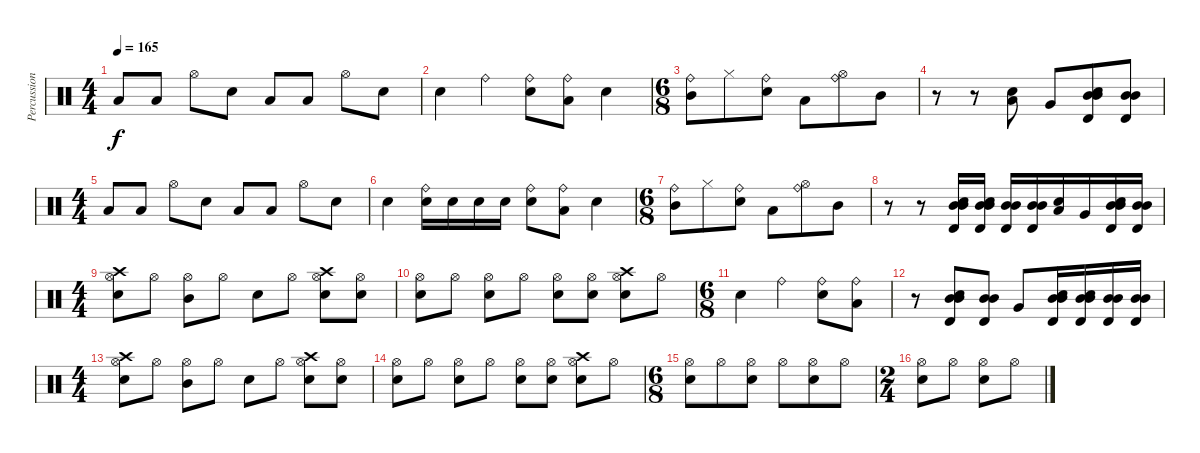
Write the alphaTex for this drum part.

\track ("Percussion" "Percussion") {instrument percussion}
\staff {score}
\articulation defaults
\ts (4 4)
\tempo 165
\clef neutral
\ks c "Low Tom (hit)".8{dy f} "Low Tom (hit)".8 "Hi-Hat (open)".8 "Electric Snare (hit)".8 "Low Tom (hit)".8 "Low Tom (hit)".8 "Hi-Hat (open)".8 "Electric Snare (hit)".8
|
"Electric Snare (hit)".4 "Ride (bell)".4 ("Ride (bell)" "Electric Snare (hit)").8 ("Low Tom (hit)" "Ride (bell)").8 "Electric Snare (hit)".4 |
\ts (6 8)
("Mid Tom (hit)" "Ride (bell)").8 "Hi-Hat (closed)".8 ("Electric Snare (hit)" "Ride (bell)").8 "Low Tom (hit)".8 ("Hi-Hat (open)" "Ride (bell)").8 "Mid Tom (hit)".8 |
r.8 r.8 ("Low Tom (hit)" "Electric Snare (hit)").8 "Very Low Tom (hit)".8 ("Timbale high (hit)" "Mid Tom (hit)" "Mid Tom (hit)" "Electric Snare (hit)").8 ("Timbale high (hit)" "Mid Tom (hit)" "Mid Tom (hit)").8 |
\ts (4 4)
"Low Tom (hit)".8 "Low Tom (hit)".8 "Hi-Hat (open)".8 "Electric Snare (hit)".8 "Low Tom (hit)".8 "Low Tom (hit)".8 "Hi-Hat (open)".8 "Electric Snare (hit)".8 |
"Electric Snare (hit)".4 ("Ride (bell)" "Electric Snare (hit)").16 "Electric Snare (hit)".16 "Electric Snare (hit)".16 "Electric Snare (hit)".16 ("Ride (bell)" "Electric Snare (hit)").8 ("Low Tom (hit)" "Ride (bell)").8 "Electric Snare (hit)".4 |
\ts (6 8)
("Mid Tom (hit)" "Ride (bell)").8 "Hi-Hat (closed)".8 ("Electric Snare (hit)" "Ride (bell)").8 "Low Tom (hit)".8 ("Hi-Hat (open)" "Ride (bell)").8 "Mid Tom (hit)".8 |
r.8 r.8 ("Timbale high (hit)" "Mid Tom (hit)" "Mid Tom (hit)" "Electric Snare (hit)").16 ("Timbale high (hit)" "Mid Tom (hit)" "Mid Tom (hit)" "Electric Snare (hit)").16 ("Timbale high (hit)" "Mid Tom (hit)" "Mid Tom (hit)").16 ("Timbale high (hit)" "Mid Tom (hit)" "Mid Tom (hit)").16 ("Low Tom (hit)" "Electric Snare (hit)").16 "Very Low Tom (hit)".16 ("Timbale high (hit)" "Mid Tom (hit)" "Mid Tom (hit)" "Electric Snare (hit)").16 ("Timbale high (hit)" "Mid Tom (hit)" "Mid Tom (hit)").16 |
\ts (4 4)
("Electric Snare (hit)" "Hi-Hat (open)" "Crash high (hit)").8 "Hi-Hat (open)".8 ("Hi-Hat (open)" "Mid Tom (hit)").8 "Hi-Hat (open)".8 "Electric Snare (hit)".8 "Hi-Hat (open)".8 ("Hi-Hat (open)" "Electric Snare (hit)" "Crash high (hit)").8 ("Hi-Hat (open)" "Electric Snare (hit)").8 |
("Hi-Hat (open)" "Electric Snare (hit)").8 "Hi-Hat (open)".8 ("Hi-Hat (open)" "Electric Snare (hit)").8 "Hi-Hat (open)".8 ("Hi-Hat (open)" "Electric Snare (hit)").8 ("Hi-Hat (open)" "Electric Snare (hit)").8 ("Hi-Hat (open)" "Electric Snare (hit)" "Crash high (hit)").8 "Hi-Hat (open)".8 |
\ts (6 8)
"Electric Snare (hit)".4 "Ride (bell)".4 ("Ride (bell)" "Electric Snare (hit)").8 ("Low Tom (hit)" "Ride (bell)").8 |
r.8 ("Timbale high (hit)" "Mid Tom (hit)" "Mid Tom (hit)" "Electric Snare (hit)").8 ("Timbale high (hit)" "Mid Tom (hit)" "Mid Tom (hit)").8 "Very Low Tom (hit)".8 ("Timbale high (hit)" "Mid Tom (hit)" "Mid Tom (hit)" "Electric Snare (hit)").16 ("Timbale high (hit)" "Mid Tom (hit)" "Mid Tom (hit)" "Electric Snare (hit)").16 ("Timbale high (hit)" "Mid Tom (hit)" "Mid Tom (hit)").16 ("Timbale high (hit)" "Mid Tom (hit)" "Mid Tom (hit)").16 |
\ts (4 4)
("Electric Snare (hit)" "Hi-Hat (open)" "Crash high (hit)").8 "Hi-Hat (open)".8 ("Hi-Hat (open)" "Mid Tom (hit)").8 "Hi-Hat (open)".8 "Electric Snare (hit)".8 "Hi-Hat (open)".8 ("Hi-Hat (open)" "Electric Snare (hit)" "Crash high (hit)").8 ("Hi-Hat (open)" "Electric Snare (hit)").8 |
("Hi-Hat (open)" "Electric Snare (hit)").8 "Hi-Hat (open)".8 ("Hi-Hat (open)" "Electric Snare (hit)").8 "Hi-Hat (open)".8 ("Hi-Hat (open)" "Electric Snare (hit)").8 ("Hi-Hat (open)" "Electric Snare (hit)").8 ("Hi-Hat (open)" "Electric Snare (hit)" "Crash high (hit)").8 "Hi-Hat (open)".8 |
\ts (6 8)
("Hi-Hat (open)" "Electric Snare (hit)").8 "Hi-Hat (open)".8 ("Hi-Hat (open)" "Electric Snare (hit)").8 "Hi-Hat (open)".8 ("Hi-Hat (open)" "Electric Snare (hit)").8 "Hi-Hat (open)".8 |
\ts (2 4)
("Hi-Hat (open)" "Electric Snare (hit)").8 "Hi-Hat (open)".8 ("Hi-Hat (open)" "Electric Snare (hit)").8 "Hi-Hat (open)".8
